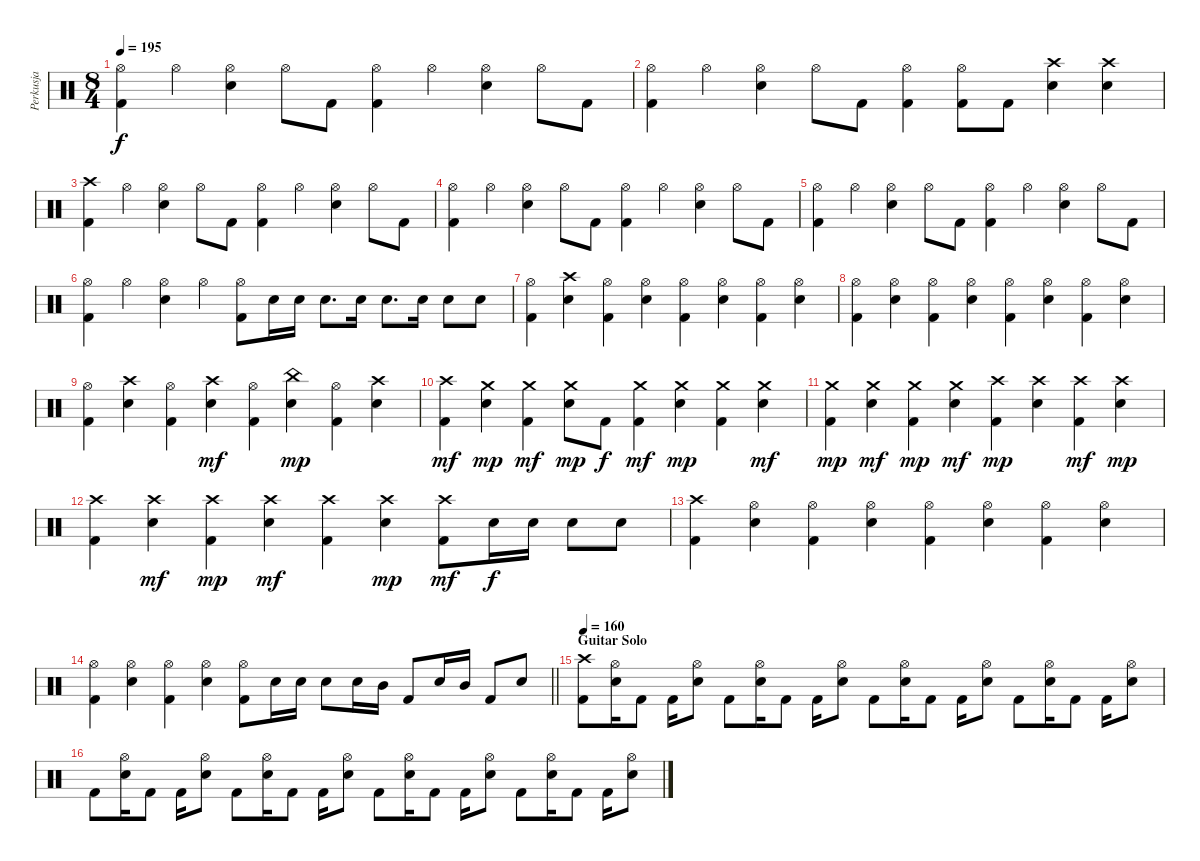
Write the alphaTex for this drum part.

\track ("Perkusja" "Perkusja") {instrument percussion}
\staff {score}
\articulation defaults
\ts (8 4)
\tempo 195
\clef neutral
\ks c
("Hi-Hat (open)" "Kick (hit) 2").4{dy f} "Hi-Hat (open)".4 ("Hi-Hat (open)" "Snare (hit) 2").4 "Hi-Hat (open)".8 "Kick (hit) 2".8 ("Hi-Hat (open)" "Kick (hit) 2").4 "Hi-Hat (open)".4 ("Hi-Hat (open)" "Snare (hit) 2").4 "Hi-Hat (open)".8 "Kick (hit) 2".8 |
("Hi-Hat (open)" "Kick (hit) 2").4 "Hi-Hat (open)".4 ("Hi-Hat (open)" "Snare (hit) 2").4 "Hi-Hat (open)".8 "Kick (hit) 2".8 ("Hi-Hat (open)" "Kick (hit) 2").4 ("Hi-Hat (open)" "Kick (hit) 2").8 "Kick (hit) 2".8 ("Crash high (hit)" "Snare (hit) 2").4 ("Crash high (hit)" "Snare (hit) 2").4 |
("Crash high (hit)" "Kick (hit) 2").4 "Hi-Hat (open)".4 ("Hi-Hat (open)" "Snare (hit) 2").4 "Hi-Hat (open)".8 "Kick (hit) 2".8 ("Hi-Hat (open)" "Kick (hit) 2").4 "Hi-Hat (open)".4 ("Hi-Hat (open)" "Snare (hit) 2").4 "Hi-Hat (open)".8 "Kick (hit) 2".8 |
("Hi-Hat (open)" "Kick (hit) 2").4 "Hi-Hat (open)".4 ("Hi-Hat (open)" "Snare (hit) 2").4 "Hi-Hat (open)".8 "Kick (hit) 2".8 ("Hi-Hat (open)" "Kick (hit) 2").4 "Hi-Hat (open)".4 ("Hi-Hat (open)" "Snare (hit) 2").4 "Hi-Hat (open)".8 "Kick (hit) 2".8 |
("Hi-Hat (open)" "Kick (hit) 2").4 "Hi-Hat (open)".4 ("Hi-Hat (open)" "Snare (hit) 2").4 "Hi-Hat (open)".8 "Kick (hit) 2".8 ("Hi-Hat (open)" "Kick (hit) 2").4 "Hi-Hat (open)".4 ("Hi-Hat (open)" "Snare (hit) 2").4 "Hi-Hat (open)".8 "Kick (hit) 2".8 |
("Hi-Hat (open)" "Kick (hit) 2").4 "Hi-Hat (open)".4 ("Hi-Hat (open)" "Snare (hit) 2").4 "Hi-Hat (open)".4 ("Hi-Hat (open)" "Kick (hit) 2").8 "Snare (hit) 2".16 "Snare (hit) 2".16 "Snare (hit) 2".8{d} "Snare (hit) 2".16 "Snare (hit) 2".8{d} "Snare (hit) 2".16 "Snare (hit) 2".8 "Snare (hit) 2".8 |
("Hi-Hat (open)" "Kick (hit) 2").4 ("Crash high (hit)" "Snare (hit) 2").4 ("Hi-Hat (open)" "Kick (hit) 2").4 ("Hi-Hat (open)" "Snare (hit) 2").4 ("Hi-Hat (open)" "Kick (hit) 2").4 ("Hi-Hat (open)" "Snare (hit) 2").4 ("Hi-Hat (open)" "Kick (hit) 2").4 ("Hi-Hat (open)" "Snare (hit) 2").4 |
("Hi-Hat (open)" "Kick (hit) 2").4 ("Hi-Hat (open)" "Snare (hit) 2").4 ("Hi-Hat (open)" "Kick (hit) 2").4 ("Hi-Hat (open)" "Snare (hit) 2").4 ("Hi-Hat (open)" "Kick (hit) 2").4 ("Hi-Hat (open)" "Snare (hit) 2").4 ("Hi-Hat (open)" "Kick (hit) 2").4 ("Hi-Hat (open)" "Snare (hit) 2").4 |
("Hi-Hat (open)" "Kick (hit) 2").4 ("Crash high (hit)" "Snare (hit) 2").4 ("Hi-Hat (open)" "Kick (hit) 2").4 ("Crash high (hit)" "Snare (hit) 2").4{dy mf} ("Hi-Hat (open)" "Kick (hit) 2").4 ("China (hit)" "Snare (hit) 2").4{dy mp} ("Hi-Hat (open)" "Kick (hit) 2").4 ("Crash high (hit)" "Snare (hit) 2").4 |
("Crash high (hit)" "Kick (hit) 2").4{dy mf} ("Crash medium (hit)" "Snare (hit) 2").4{dy mp} ("Crash medium (hit)" "Kick (hit) 2").4{dy mf} ("Crash medium (hit)" "Snare (hit) 2").8{dy mp} "Kick (hit) 2".8{dy f} ("Crash medium (hit)" "Kick (hit) 2").4{dy mf} ("Crash medium (hit)" "Snare (hit) 2").4{dy mp} ("Crash medium (hit)" "Kick (hit) 2").4 ("Crash medium (hit)" "Snare (hit) 2").4{dy mf} |
("Crash medium (hit)" "Kick (hit) 2").4{dy mp} ("Crash medium (hit)" "Snare (hit) 2").4{dy mf} ("Crash medium (hit)" "Kick (hit) 2").4{dy mp} ("Crash medium (hit)" "Snare (hit) 2").4{dy mf} ("Crash high (hit)" "Kick (hit) 2").4{dy mp} ("Crash high (hit)" "Snare (hit) 2").4 ("Crash high (hit)" "Kick (hit) 2").4{dy mf} ("Crash high (hit)" "Snare (hit) 2").4{dy mp} |
("Crash high (hit)" "Kick (hit) 2").4 ("Crash high (hit)" "Snare (hit) 2").4{dy mf} ("Crash high (hit)" "Kick (hit) 2").4{dy mp} ("Crash high (hit)" "Snare (hit) 2").4{dy mf} ("Crash high (hit)" "Kick (hit) 2").4 ("Crash high (hit)" "Snare (hit) 2").4{dy mp} ("Crash high (hit)" "Kick (hit) 2").8{dy mf} "Snare (hit) 2".16{dy f} "Snare (hit) 2".16 "Snare (hit) 2".8 "Snare (hit) 2".8 |
("Crash high (hit)" "Kick (hit) 2").4 ("Hi-Hat (open)" "Snare (hit) 2").4 ("Hi-Hat (open)" "Kick (hit) 2").4 ("Hi-Hat (open)" "Snare (hit) 2").4 ("Hi-Hat (open)" "Kick (hit) 2").4 ("Hi-Hat (open)" "Snare (hit) 2").4 ("Hi-Hat (open)" "Kick (hit) 2").4 ("Hi-Hat (open)" "Snare (hit) 2").4 |
\barLineRight lightlight
("Hi-Hat (open)" "Kick (hit) 2").4 ("Hi-Hat (open)" "Snare (hit) 2").4 ("Hi-Hat (open)" "Kick (hit) 2").4 ("Hi-Hat (open)" "Snare (hit) 2").4 ("Hi-Hat (open)" "Kick (hit) 2").8 "Snare (hit) 2".16 "Snare (hit) 2".16 "Snare (hit) 2".8 "Snare (hit) 2".16 "Mid Tom (hit)".16 "Kick (hit) 2".8 "Snare (hit) 2".16 "Mid Tom (hit)".16 "Kick (hit) 2".8 "Snare (hit) 2".8 |
\section ("" "Guitar Solo")
\tempo 160
("Crash high (hit)" "Kick (hit) 2").8 ("Hi-Hat (open)" "Snare (hit) 2").16 "Kick (hit) 2".8 "Kick (hit) 2".16 ("Hi-Hat (open)" "Snare (hit) 2").8 "Kick (hit) 2".8 ("Hi-Hat (open)" "Snare (hit) 2").16 "Kick (hit) 2".8 "Kick (hit) 2".16 ("Hi-Hat (open)" "Snare (hit) 2").8 "Kick (hit) 2".8 ("Hi-Hat (open)" "Snare (hit) 2").16 "Kick (hit) 2".8 "Kick (hit) 2".16 ("Hi-Hat (open)" "Snare (hit) 2").8 "Kick (hit) 2".8 ("Hi-Hat (open)" "Snare (hit) 2").16 "Kick (hit) 2".8 "Kick (hit) 2".16 ("Hi-Hat (open)" "Snare (hit) 2").8 |
"Kick (hit) 2".8 ("Hi-Hat (open)" "Snare (hit) 2").16 "Kick (hit) 2".8 "Kick (hit) 2".16 ("Hi-Hat (open)" "Snare (hit) 2").8 "Kick (hit) 2".8 ("Hi-Hat (open)" "Snare (hit) 2").16 "Kick (hit) 2".8 "Kick (hit) 2".16 ("Hi-Hat (open)" "Snare (hit) 2").8 "Kick (hit) 2".8 ("Hi-Hat (open)" "Snare (hit) 2").16 "Kick (hit) 2".8 "Kick (hit) 2".16 ("Hi-Hat (open)" "Snare (hit) 2").8 "Kick (hit) 2".8 ("Hi-Hat (open)" "Snare (hit) 2").16 "Kick (hit) 2".8 "Kick (hit) 2".16 ("Hi-Hat (open)" "Snare (hit) 2").8
